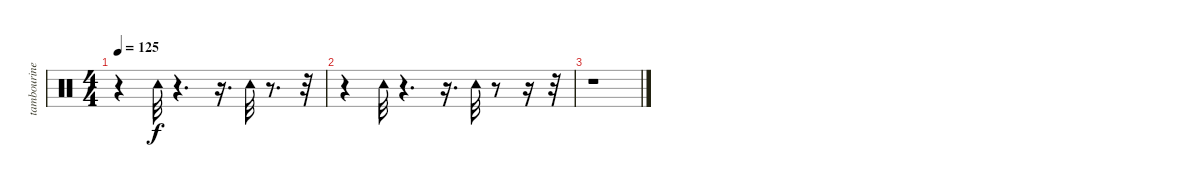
\track ("tambourine" "tambourine") {instrument percussion}
\staff {score}
\articulation defaults
\ts (4 4)
\tempo 125
\clef neutral
\ks c
r.4{dy f} "Tambourine (hit)".32 r.4{d} r.16{d} "Tambourine (hit)".32 r.8{d} r.32 |
r.4 "Tambourine (hit)".32 r.4{d} r.16{d} "Tambourine (hit)".32 r.8 r.16 r.32 |
r.1
